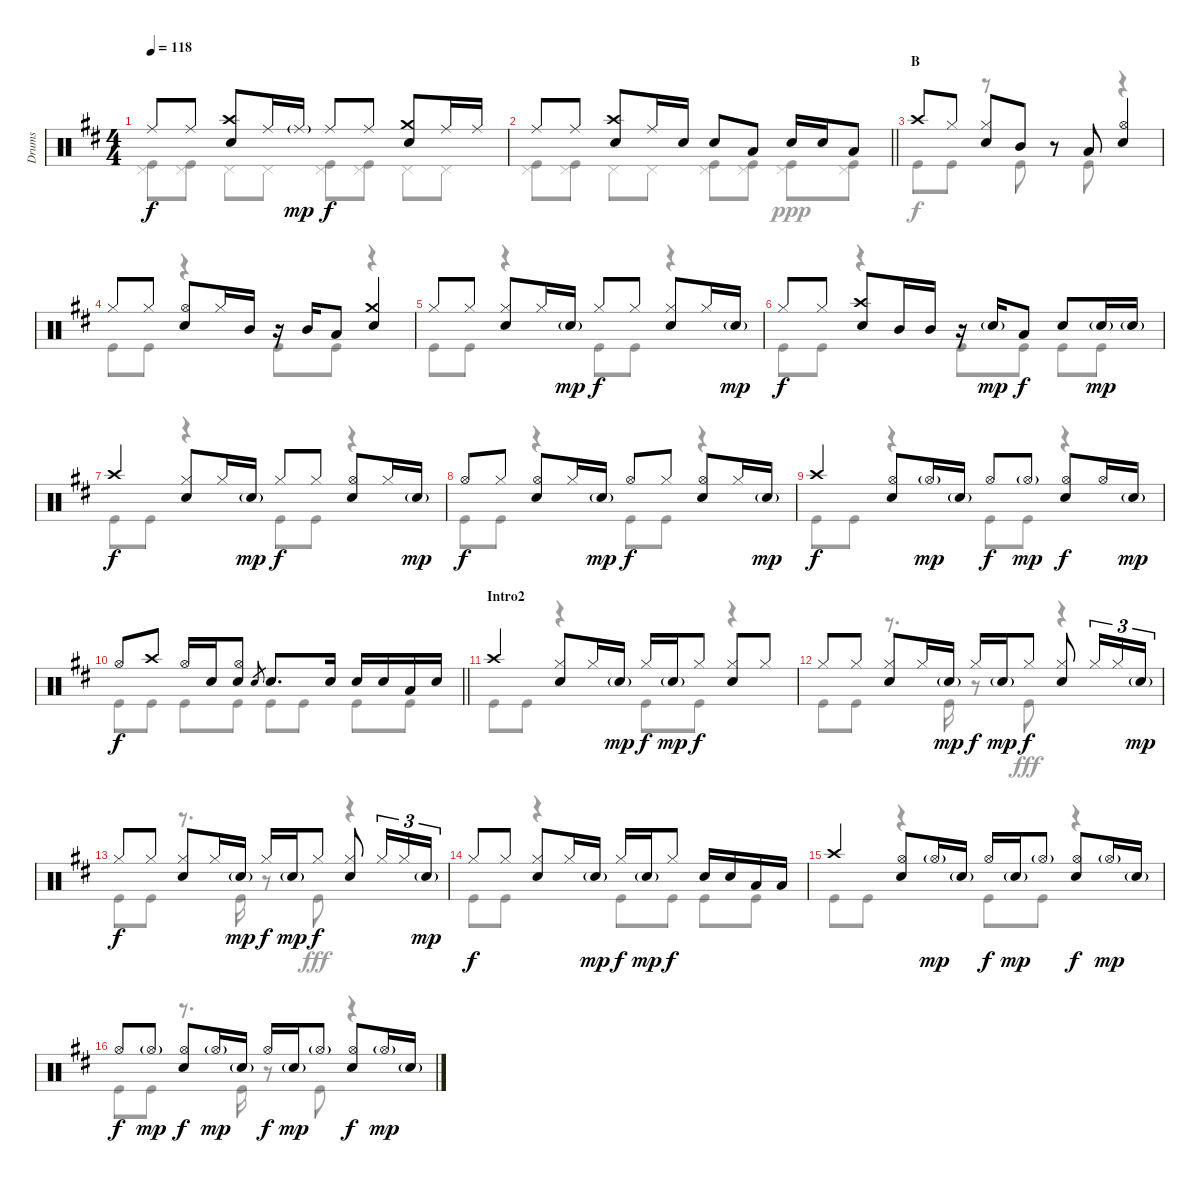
\track ("Drums" "Drums") {instrument percussion}
\staff {score}
\articulation defaults
\voice
\ts (4 4)
\tempo 118
\clef neutral
\ks d "Ride (middle)".8{dy f} "Ride (middle)".8
("Crash high (hit)" "Snare (hit) 2").8 "Ride (middle)".16 "Ride (middle)"{g}.16{dy mp} "Ride (middle)".8{dy f} "Ride (middle)".8 ("Crash medium (hit)" "Snare (hit) 2").8 "Ride (middle)".16 "Ride (middle)".16 |
\barLineRight lightlight "Ride (middle)".8 "Ride (middle)".8
("Crash high (hit)" "Snare (hit) 2").8 "Ride (middle)".16 "Snare (hit) 2".16 "Snare (hit) 2".8 "Low Tom (hit)".8 "Snare (hit) 2".16 "Snare (hit) 2".16 "Low Tom (hit)".8 |
\section ("" "B")
"Crash high (hit)".8 "Hi-Hat (closed)".8 ("Hi-Hat (closed)" "Snare (hit) 2").8 "Mid Tom (hit)".8 r.8 "Low Tom (hit)".8 ("Hi-Hat (open)" "Snare (hit) 2").4 |
"Hi-Hat (closed)".8 "Hi-Hat (closed)".8 ("Hi-Hat (open)" "Snare (hit) 2").8 "Hi-Hat (closed)".16 "Mid Tom (hit)".16 r.16 "Mid Tom (hit)".16 "Low Tom (hit)".8 ("Crash medium (hit)" "Snare (hit) 2").4 |
"Hi-Hat (closed)".8 "Hi-Hat (closed)".8 ("Hi-Hat (closed)" "Snare (hit) 2").8 "Hi-Hat (closed)".16 "Snare (hit) 2"{g}.16{dy mp} "Hi-Hat (closed)".8{dy f} "Hi-Hat (closed)".8 ("Hi-Hat (closed)" "Snare (hit) 2").8 "Hi-Hat (closed)".16 "Snare (hit) 2"{g}.16{dy mp} |
"Hi-Hat (closed)".8{dy f} "Hi-Hat (closed)".8 ("Crash high (hit)" "Snare (hit) 2").8 "Mid Tom (hit)".16 "Mid Tom (hit)".16 r.16 "Snare (hit) 2"{g}.16{dy mp} "Low Tom (hit)".8{dy f} "Snare (hit) 2".8 "Snare (hit) 2"{g}.16{dy mp} "Snare (hit) 2"{g}.16 |
"Crash high (hit)".4{dy f} ("Hi-Hat (closed)" "Snare (hit) 2").8 "Hi-Hat (closed)".16 "Snare (hit) 2"{g}.16{dy mp} "Hi-Hat (closed)".8{dy f} "Hi-Hat (closed)".8 ("Hi-Hat (open)" "Snare (hit) 2").8 "Hi-Hat (closed)".16 "Snare (hit) 2"{g}.16{dy mp} |
"Hi-Hat (open)".8{dy f} "Hi-Hat (closed)".8 ("Hi-Hat (open)" "Snare (hit) 2").8 "Hi-Hat (closed)".16 "Snare (hit) 2"{g}.16{dy mp} "Hi-Hat (open)".8{dy f} "Hi-Hat (closed)".8 ("Hi-Hat (open)" "Snare (hit) 2").8 "Hi-Hat (closed)".16 "Snare (hit) 2"{g}.16{dy mp} |
"Crash high (hit)".4{dy f} ("Hi-Hat (open)" "Snare (hit) 2").8 "Hi-Hat (open)"{g}.16{dy mp} "Snare (hit) 2"{g}.16 "Hi-Hat (open)".8{dy f} "Hi-Hat (open)"{g}.8{dy mp} ("Hi-Hat (open)" "Snare (hit) 2").8{dy f} "Hi-Hat (open)".16 "Snare (hit) 2"{g}.16{dy mp} |
\barLineRight lightlight "Hi-Hat (open)".8{dy f} "Crash high (hit)".8 "Hi-Hat (open)".16 "Snare (hit) 2".16
("Hi-Hat (open)" "Snare (hit) 2").8 "Snare (hit) 2".8{gr} "Snare (hit) 2".8{d} "Snare (hit) 2".16 "Snare (hit) 2".16 "Snare (hit) 2".16 "Low Tom (hit)".16 "Snare (hit) 2".16 |
\section ("" "Intro2")
"Crash high (hit)".4 ("Hi-Hat (closed)" "Snare (hit) 2").8 "Hi-Hat (closed)".16 "Snare (hit) 2"{g}.16{dy mp} "Hi-Hat (closed)".16{dy f} "Snare (hit) 2"{g}.16{dy mp} "Hi-Hat (closed)".8{dy f} ("Hi-Hat (closed)" "Snare (hit) 2").8 "Hi-Hat (closed)".8 |
"Hi-Hat (closed)".8 "Hi-Hat (closed)".8 ("Hi-Hat (closed)" "Snare (hit) 2").8 "Hi-Hat (closed)".16 "Snare (hit) 2"{g}.16{dy mp} "Hi-Hat (closed)".16{dy f} "Snare (hit) 2"{g}.16{dy mp} "Hi-Hat (closed)".8{dy f} ("Hi-Hat (closed)" "Snare (hit) 2").8 "Hi-Hat (closed)".16{tu (3 2)} "Hi-Hat (closed)".16{tu (3 2)} "Snare (hit) 2"{g}.16{tu (3 2) dy mp} |
"Hi-Hat (closed)".8{dy f} "Hi-Hat (closed)".8 ("Hi-Hat (closed)" "Snare (hit) 2").8 "Hi-Hat (closed)".16 "Snare (hit) 2"{g}.16{dy mp} "Hi-Hat (closed)".16{dy f} "Snare (hit) 2"{g}.16{dy mp} "Hi-Hat (closed)".8{dy f} ("Hi-Hat (closed)" "Snare (hit) 2").8 "Hi-Hat (closed)".16{tu (3 2)} "Hi-Hat (closed)".16{tu (3 2)} "Snare (hit) 2"{g}.16{tu (3 2) dy mp} |
"Hi-Hat (closed)".8{dy f} "Hi-Hat (closed)".8 ("Hi-Hat (closed)" "Snare (hit) 2").8 "Hi-Hat (closed)".16 "Snare (hit) 2"{g}.16{dy mp} "Hi-Hat (closed)".16{dy f} "Snare (hit) 2"{g}.16{dy mp} "Hi-Hat (closed)".8{dy f} "Snare (hit) 2".16 "Snare (hit) 2".16 "Low Tom (hit)".16 "Low Tom (hit)".16 |
"Crash high (hit)".4 ("Hi-Hat (open)" "Snare (hit) 2").8 "Hi-Hat (open)"{g}.16{dy mp} "Snare (hit) 2"{g}.16 "Hi-Hat (open)".16{dy f} "Snare (hit) 2"{g}.16{dy mp} "Hi-Hat (open)"{g}.8 ("Hi-Hat (open)" "Snare (hit) 2").8{dy f} "Hi-Hat (open)"{g}.16{dy mp} "Snare (hit) 2"{g}.16 |
"Hi-Hat (open)".8{dy f} "Hi-Hat (open)"{g}.8{dy mp} ("Hi-Hat (open)" "Snare (hit) 2").8{dy f} "Hi-Hat (open)"{g}.16{dy mp} "Snare (hit) 2"{g}.16 "Hi-Hat (open)".16{dy f} "Snare (hit) 2"{g}.16{dy mp} "Hi-Hat (open)"{g}.8 ("Hi-Hat (open)" "Snare (hit) 2").8{dy f} "Hi-Hat (open)"{g}.16{dy mp} "Snare (hit) 2"{g}.16
\voice
\clef neutral
\ottava regular
\simile none
\ks d
("Pedal Hi-Hat (hit)" "Kick (hit)").8{dy f} ("Pedal Hi-Hat (hit)" "Kick (hit)").8 "Pedal Hi-Hat (hit)".8 "Pedal Hi-Hat (hit)".8 ("Pedal Hi-Hat (hit)" "Kick (hit)").8 ("Pedal Hi-Hat (hit)" "Kick (hit)").8 "Pedal Hi-Hat (hit)".8 "Pedal Hi-Hat (hit)".8 |
\barLineRight lightlight
("Pedal Hi-Hat (hit)" "Kick (hit)").8 ("Pedal Hi-Hat (hit)" "Kick (hit)").8 "Pedal Hi-Hat (hit)".8 "Pedal Hi-Hat (hit)".8 ("Pedal Hi-Hat (hit)" "Kick (hit)").8 ("Pedal Hi-Hat (hit)" "Kick (hit)").8 ("Pedal Hi-Hat (hit)" "Kick (hit)").8{dy ppp} ("Pedal Hi-Hat (hit)" "Kick (hit)").8 |
"Kick (hit)".8{dy f} "Kick (hit)".8 r.8 "Kick (hit)".8 r.8 "Kick (hit)".8 r.4 |
"Kick (hit)".8 "Kick (hit)".8 r.4 "Kick (hit)".8 "Kick (hit)".8 r.4 |
"Kick (hit)".8 "Kick (hit)".8 r.4 "Kick (hit)".8 "Kick (hit)".8 r.4 |
"Kick (hit)".8 "Kick (hit)".8 r.4 "Kick (hit)".8 "Kick (hit)".8 "Kick (hit)".8 "Kick (hit)".8 |
"Kick (hit)".8 "Kick (hit)".8 r.4 "Kick (hit)".8 "Kick (hit)".8 r.4 |
"Kick (hit)".8 "Kick (hit)".8 r.4 "Kick (hit)".8 "Kick (hit)".8 r.4 |
"Kick (hit)".8 "Kick (hit)".8 r.4 "Kick (hit)".8 "Kick (hit)".8 r.4 |
\barLineRight lightlight "Kick (hit)".8 "Kick (hit)".8 "Kick (hit)".8 "Kick (hit)".8 "Kick (hit)".8 "Kick (hit)".8 "Kick (hit)".8 "Kick (hit)".8
|
"Kick (hit)".8 "Kick (hit)".8 r.4 "Kick (hit)".8 "Kick (hit)".8 r.4 |
"Kick (hit)".8 "Kick (hit)".8 r.8{d} "Kick (hit)".16 r.8 "Kick (hit)".8{dy fff} r.4 |
"Kick (hit)".8{dy f} "Kick (hit)".8 r.8{d} "Kick (hit)".16 r.8 "Kick (hit)".8{dy fff} r.4 |
"Kick (hit)".8{dy f} "Kick (hit)".8 r.4 "Kick (hit)".8 "Kick (hit)".8 "Kick (hit)".8 "Kick (hit)".8 |
"Kick (hit)".8 "Kick (hit)".8 r.4 "Kick (hit)".8 "Kick (hit)".8 r.4 |
"Kick (hit)".8 "Kick (hit)".8 r.8{d} "Kick (hit)".16 r.8 "Kick (hit)".8 r.4
